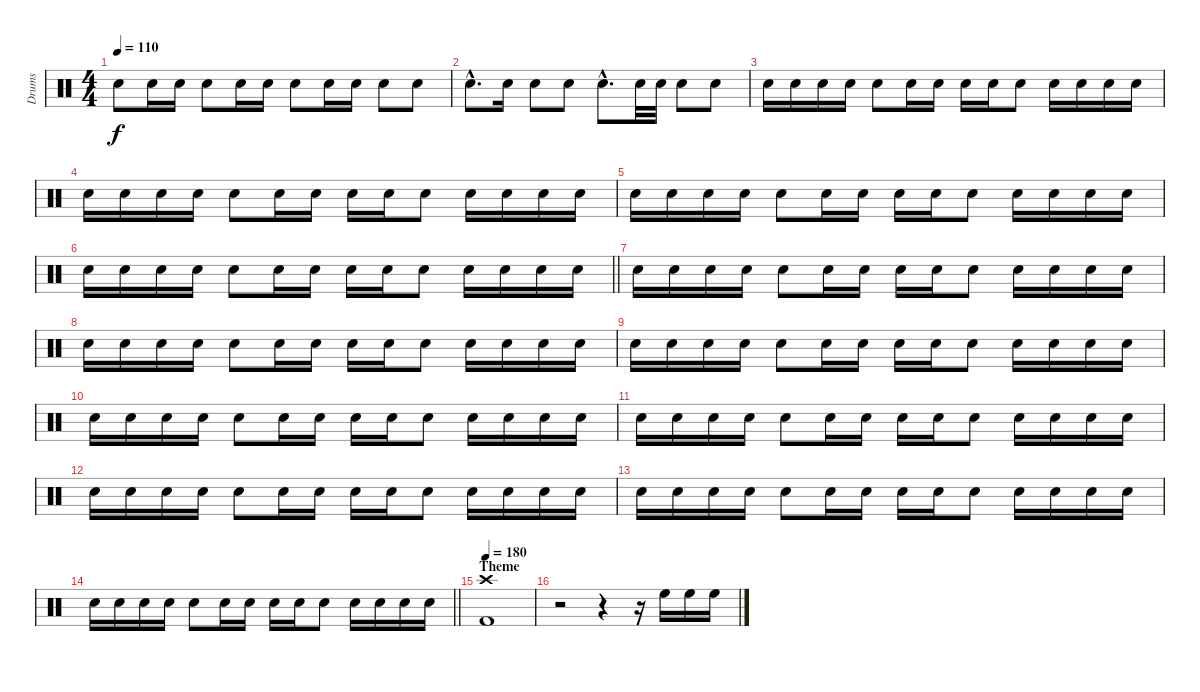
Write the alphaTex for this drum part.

\track ("Drums" "Drums") {instrument percussion}
\staff {score}
\articulation defaults
\ts (4 4)
\tempo 110
\clef neutral
\ks c "Electric Snare (hit)".8{dy f} "Electric Snare (hit)".16 "Electric Snare (hit)".16 "Electric Snare (hit)".8 "Electric Snare (hit)".16 "Electric Snare (hit)".16 "Electric Snare (hit)".8 "Electric Snare (hit)".16 "Electric Snare (hit)".16 "Electric Snare (hit)".8 "Electric Snare (hit)".8
|
"Electric Snare (hit)"{hac}.8{d} "Electric Snare (hit)".16 "Electric Snare (hit)".8 "Electric Snare (hit)".8 "Electric Snare (hit)"{hac}.8{d} "Electric Snare (hit)".32 "Electric Snare (hit)".32 "Electric Snare (hit)".8 "Electric Snare (hit)".8 |
"Electric Snare (hit)".16 "Electric Snare (hit)".16 "Electric Snare (hit)".16 "Electric Snare (hit)".16 "Electric Snare (hit)".8 "Electric Snare (hit)".16 "Electric Snare (hit)".16 "Electric Snare (hit)".16 "Electric Snare (hit)".16 "Electric Snare (hit)".8 "Electric Snare (hit)".16 "Electric Snare (hit)".16 "Electric Snare (hit)".16 "Electric Snare (hit)".16 |
"Electric Snare (hit)".16 "Electric Snare (hit)".16 "Electric Snare (hit)".16 "Electric Snare (hit)".16 "Electric Snare (hit)".8 "Electric Snare (hit)".16 "Electric Snare (hit)".16 "Electric Snare (hit)".16 "Electric Snare (hit)".16 "Electric Snare (hit)".8 "Electric Snare (hit)".16 "Electric Snare (hit)".16 "Electric Snare (hit)".16 "Electric Snare (hit)".16 |
"Electric Snare (hit)".16 "Electric Snare (hit)".16 "Electric Snare (hit)".16 "Electric Snare (hit)".16 "Electric Snare (hit)".8 "Electric Snare (hit)".16 "Electric Snare (hit)".16 "Electric Snare (hit)".16 "Electric Snare (hit)".16 "Electric Snare (hit)".8 "Electric Snare (hit)".16 "Electric Snare (hit)".16 "Electric Snare (hit)".16 "Electric Snare (hit)".16 |
\barLineRight lightlight "Electric Snare (hit)".16 "Electric Snare (hit)".16 "Electric Snare (hit)".16 "Electric Snare (hit)".16 "Electric Snare (hit)".8 "Electric Snare (hit)".16 "Electric Snare (hit)".16 "Electric Snare (hit)".16 "Electric Snare (hit)".16 "Electric Snare (hit)".8 "Electric Snare (hit)".16 "Electric Snare (hit)".16 "Electric Snare (hit)".16 "Electric Snare (hit)".16
|
\section ("" "")
"Electric Snare (hit)".16 "Electric Snare (hit)".16 "Electric Snare (hit)".16 "Electric Snare (hit)".16 "Electric Snare (hit)".8 "Electric Snare (hit)".16 "Electric Snare (hit)".16 "Electric Snare (hit)".16 "Electric Snare (hit)".16 "Electric Snare (hit)".8 "Electric Snare (hit)".16 "Electric Snare (hit)".16 "Electric Snare (hit)".16 "Electric Snare (hit)".16 |
"Electric Snare (hit)".16 "Electric Snare (hit)".16 "Electric Snare (hit)".16 "Electric Snare (hit)".16 "Electric Snare (hit)".8 "Electric Snare (hit)".16 "Electric Snare (hit)".16 "Electric Snare (hit)".16 "Electric Snare (hit)".16 "Electric Snare (hit)".8 "Electric Snare (hit)".16 "Electric Snare (hit)".16 "Electric Snare (hit)".16 "Electric Snare (hit)".16 |
"Electric Snare (hit)".16 "Electric Snare (hit)".16 "Electric Snare (hit)".16 "Electric Snare (hit)".16 "Electric Snare (hit)".8 "Electric Snare (hit)".16 "Electric Snare (hit)".16 "Electric Snare (hit)".16 "Electric Snare (hit)".16 "Electric Snare (hit)".8 "Electric Snare (hit)".16 "Electric Snare (hit)".16 "Electric Snare (hit)".16 "Electric Snare (hit)".16 |
"Electric Snare (hit)".16 "Electric Snare (hit)".16 "Electric Snare (hit)".16 "Electric Snare (hit)".16 "Electric Snare (hit)".8 "Electric Snare (hit)".16 "Electric Snare (hit)".16 "Electric Snare (hit)".16 "Electric Snare (hit)".16 "Electric Snare (hit)".8 "Electric Snare (hit)".16 "Electric Snare (hit)".16 "Electric Snare (hit)".16 "Electric Snare (hit)".16 |
"Electric Snare (hit)".16 "Electric Snare (hit)".16 "Electric Snare (hit)".16 "Electric Snare (hit)".16 "Electric Snare (hit)".8 "Electric Snare (hit)".16 "Electric Snare (hit)".16 "Electric Snare (hit)".16 "Electric Snare (hit)".16 "Electric Snare (hit)".8 "Electric Snare (hit)".16 "Electric Snare (hit)".16 "Electric Snare (hit)".16 "Electric Snare (hit)".16 |
"Electric Snare (hit)".16 "Electric Snare (hit)".16 "Electric Snare (hit)".16 "Electric Snare (hit)".16 "Electric Snare (hit)".8 "Electric Snare (hit)".16 "Electric Snare (hit)".16 "Electric Snare (hit)".16 "Electric Snare (hit)".16 "Electric Snare (hit)".8 "Electric Snare (hit)".16 "Electric Snare (hit)".16 "Electric Snare (hit)".16 "Electric Snare (hit)".16 |
"Electric Snare (hit)".16 "Electric Snare (hit)".16 "Electric Snare (hit)".16 "Electric Snare (hit)".16 "Electric Snare (hit)".8 "Electric Snare (hit)".16 "Electric Snare (hit)".16 "Electric Snare (hit)".16 "Electric Snare (hit)".16 "Electric Snare (hit)".8 "Electric Snare (hit)".16 "Electric Snare (hit)".16 "Electric Snare (hit)".16 "Electric Snare (hit)".16 |
\barLineRight lightlight "Electric Snare (hit)".16 "Electric Snare (hit)".16 "Electric Snare (hit)".16 "Electric Snare (hit)".16 "Electric Snare (hit)".8 "Electric Snare (hit)".16 "Electric Snare (hit)".16 "Electric Snare (hit)".16 "Electric Snare (hit)".16 "Electric Snare (hit)".8 "Electric Snare (hit)".16 "Electric Snare (hit)".16 "Electric Snare (hit)".16 "Electric Snare (hit)".16
|
\section ("" "Theme")
\tempo 180
("Crash high (hit)" "Kick (hit) 2").1 |
r.2 r.4 r.16 "High Floor Tom (hit)".16 "High Floor Tom (hit)".16 "High Floor Tom (hit)".16
